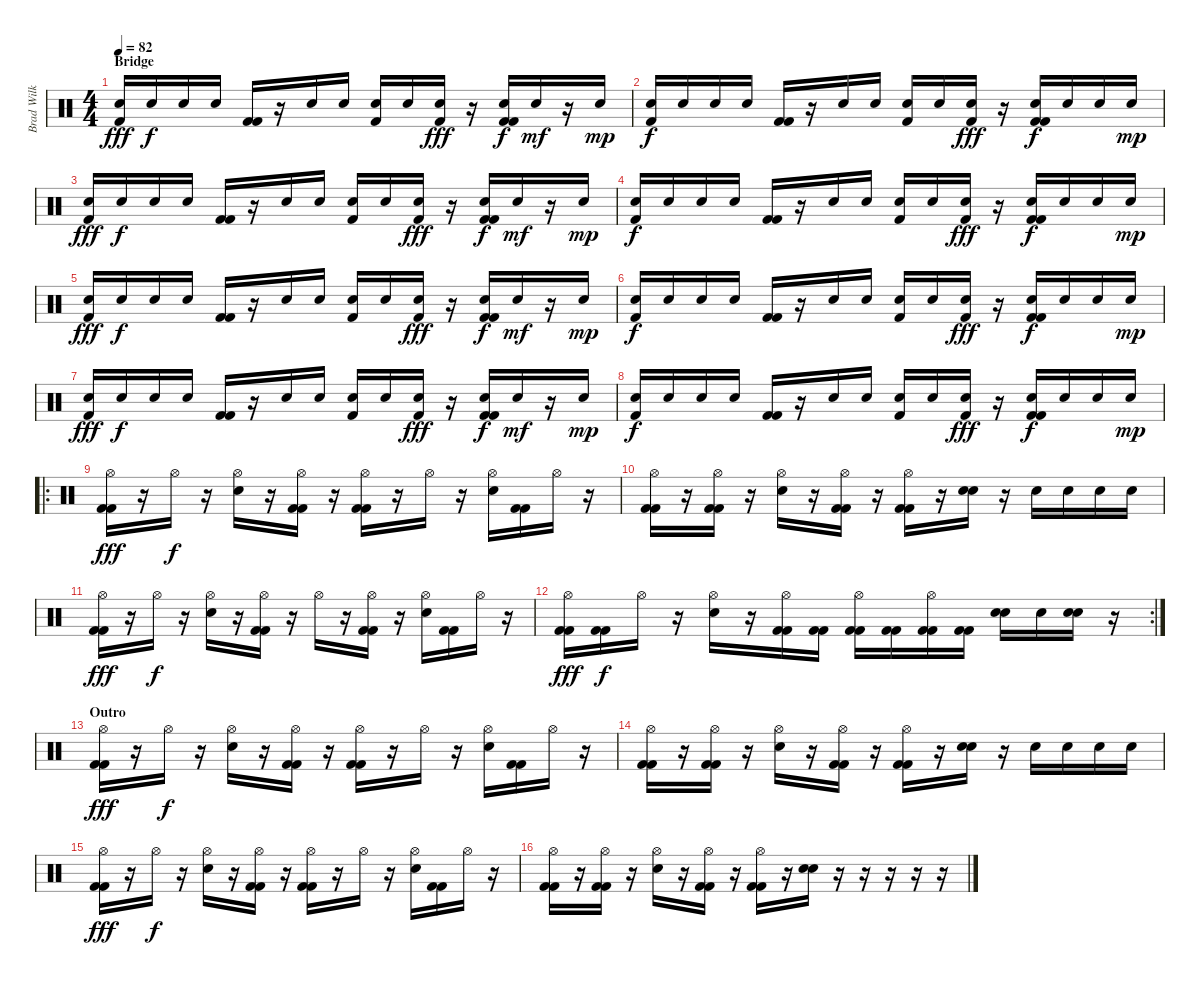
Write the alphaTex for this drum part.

\track ("Brad Wilk" "Brad Wilk") {instrument percussion}
\staff {score}
\articulation defaults
\ts (4 4)
\section ("" "Bridge")
\tempo 82
\clef neutral
\ks c
("Electric Snare (hit)" "Kick (hit) 2").16{dy fff} "Electric Snare (hit)".16{dy f} "Electric Snare (hit)".16 "Electric Snare (hit)".16 ("Kick (hit) 2" "Kick (hit) 2").16 r.16 "Electric Snare (hit)".16 "Electric Snare (hit)".16 ("Electric Snare (hit)" "Kick (hit) 2").16 "Electric Snare (hit)".16 ("Electric Snare (hit)" "Kick (hit) 2").16{dy fff} r.16 ("Electric Snare (hit)" "Kick (hit) 2" "Kick (hit) 2").16{dy f} "Snare (hit) 2".16{dy mf} r.16 "Electric Snare (hit)".16{dy mp} |
("Electric Snare (hit)" "Kick (hit) 2").16{dy f} "Electric Snare (hit)".16 "Electric Snare (hit)".16 "Electric Snare (hit)".16 ("Kick (hit) 2" "Kick (hit) 2").16 r.16 "Electric Snare (hit)".16 "Electric Snare (hit)".16 ("Electric Snare (hit)" "Kick (hit) 2").16 "Electric Snare (hit)".16 ("Electric Snare (hit)" "Kick (hit) 2").16{dy fff} r.16 ("Electric Snare (hit)" "Kick (hit) 2" "Kick (hit) 2").16{dy f} "Electric Snare (hit)".16 "Electric Snare (hit)".16 "Electric Snare (hit)".16{dy mp} |
("Electric Snare (hit)" "Kick (hit) 2").16{dy fff} "Electric Snare (hit)".16{dy f} "Electric Snare (hit)".16 "Electric Snare (hit)".16 ("Kick (hit) 2" "Kick (hit) 2").16 r.16 "Electric Snare (hit)".16 "Electric Snare (hit)".16 ("Electric Snare (hit)" "Kick (hit) 2").16 "Electric Snare (hit)".16 ("Electric Snare (hit)" "Kick (hit) 2").16{dy fff} r.16 ("Electric Snare (hit)" "Kick (hit) 2" "Kick (hit) 2").16{dy f} "Snare (hit) 2".16{dy mf} r.16 "Electric Snare (hit)".16{dy mp} |
("Electric Snare (hit)" "Kick (hit) 2").16{dy f} "Electric Snare (hit)".16 "Electric Snare (hit)".16 "Electric Snare (hit)".16 ("Kick (hit) 2" "Kick (hit) 2").16 r.16 "Electric Snare (hit)".16 "Electric Snare (hit)".16 ("Electric Snare (hit)" "Kick (hit) 2").16 "Electric Snare (hit)".16 ("Electric Snare (hit)" "Kick (hit) 2").16{dy fff} r.16 ("Electric Snare (hit)" "Kick (hit) 2" "Kick (hit) 2").16{dy f} "Electric Snare (hit)".16 "Electric Snare (hit)".16 "Electric Snare (hit)".16{dy mp} |
("Electric Snare (hit)" "Kick (hit) 2").16{dy fff} "Electric Snare (hit)".16{dy f} "Electric Snare (hit)".16 "Electric Snare (hit)".16 ("Kick (hit) 2" "Kick (hit) 2").16 r.16 "Electric Snare (hit)".16 "Electric Snare (hit)".16 ("Electric Snare (hit)" "Kick (hit) 2").16 "Electric Snare (hit)".16 ("Electric Snare (hit)" "Kick (hit) 2").16{dy fff} r.16 ("Electric Snare (hit)" "Kick (hit) 2" "Kick (hit) 2").16{dy f} "Snare (hit) 2".16{dy mf} r.16 "Electric Snare (hit)".16{dy mp} |
("Electric Snare (hit)" "Kick (hit) 2").16{dy f} "Electric Snare (hit)".16 "Electric Snare (hit)".16 "Electric Snare (hit)".16 ("Kick (hit) 2" "Kick (hit) 2").16 r.16 "Electric Snare (hit)".16 "Electric Snare (hit)".16 ("Electric Snare (hit)" "Kick (hit) 2").16 "Electric Snare (hit)".16 ("Electric Snare (hit)" "Kick (hit) 2").16{dy fff} r.16 ("Electric Snare (hit)" "Kick (hit) 2" "Kick (hit) 2").16{dy f} "Electric Snare (hit)".16 "Electric Snare (hit)".16 "Electric Snare (hit)".16{dy mp} |
("Electric Snare (hit)" "Kick (hit) 2").16{dy fff} "Electric Snare (hit)".16{dy f} "Electric Snare (hit)".16 "Electric Snare (hit)".16 ("Kick (hit) 2" "Kick (hit) 2").16 r.16 "Electric Snare (hit)".16 "Electric Snare (hit)".16 ("Electric Snare (hit)" "Kick (hit) 2").16 "Electric Snare (hit)".16 ("Electric Snare (hit)" "Kick (hit) 2").16{dy fff} r.16 ("Electric Snare (hit)" "Kick (hit) 2" "Kick (hit) 2").16{dy f} "Snare (hit) 2".16{dy mf} r.16 "Electric Snare (hit)".16{dy mp} |
("Electric Snare (hit)" "Kick (hit) 2").16{dy f} "Electric Snare (hit)".16 "Electric Snare (hit)".16 "Electric Snare (hit)".16 ("Kick (hit) 2" "Kick (hit) 2").16 r.16 "Electric Snare (hit)".16 "Electric Snare (hit)".16 ("Electric Snare (hit)" "Kick (hit) 2").16 "Electric Snare (hit)".16 ("Electric Snare (hit)" "Kick (hit) 2").16{dy fff} r.16 ("Electric Snare (hit)" "Kick (hit) 2" "Kick (hit) 2").16{dy f} "Electric Snare (hit)".16 "Electric Snare (hit)".16 "Electric Snare (hit)".16{dy mp} |
\ro
("Hi-Hat (open)" "Kick (hit) 2" "Kick (hit) 2").16{dy fff} r.16 "Hi-Hat (open)".16{dy f} r.16 ("Hi-Hat (open)" "Snare (hit) 2").16 r.16 ("Hi-Hat (open)" "Kick (hit) 2" "Kick (hit) 2").16 r.16 ("Hi-Hat (open)" "Kick (hit) 2" "Kick (hit) 2").16 r.16 "Hi-Hat (open)".16 r.16 ("Hi-Hat (open)" "Snare (hit) 2").16 ("Kick (hit) 2" "Kick (hit) 2").16 "Hi-Hat (open)".16 r.16 |
("Hi-Hat (open)" "Kick (hit) 2" "Kick (hit) 2").16 r.16 ("Hi-Hat (open)" "Kick (hit) 2" "Kick (hit) 2").16 r.16 ("Hi-Hat (open)" "Snare (hit) 2").16 r.16 ("Hi-Hat (open)" "Kick (hit) 2" "Kick (hit) 2").16 r.16 ("Hi-Hat (open)" "Kick (hit) 2" "Kick (hit) 2").16 r.16 ("Electric Snare (hit)" "Electric Snare (hit)").16{bd 240} r.16 "Electric Snare (hit)".16 "Electric Snare (hit)".16 "Electric Snare (hit)".16 "Electric Snare (hit)".16 |
("Hi-Hat (open)" "Kick (hit) 2" "Kick (hit) 2").16{dy fff} r.16 "Hi-Hat (open)".16{dy f} r.16 ("Hi-Hat (open)" "Snare (hit) 2").16 r.16 ("Hi-Hat (open)" "Kick (hit) 2" "Kick (hit) 2").16 r.16 "Hi-Hat (open)".16 r.16 ("Hi-Hat (open)" "Kick (hit) 2" "Kick (hit) 2").16 r.16 ("Hi-Hat (open)" "Snare (hit) 2").16 ("Kick (hit) 2" "Kick (hit) 2").16 "Hi-Hat (open)".16 r.16 |
\rc 2
("Hi-Hat (open)" "Kick (hit) 2" "Kick (hit) 2").16{dy fff} ("Kick (hit) 2" "Kick (hit) 2").16{dy f} "Hi-Hat (open)".16 r.16 ("Hi-Hat (open)" "Snare (hit) 2").16 r.16 ("Hi-Hat (open)" "Kick (hit) 2" "Kick (hit) 2").16 ("Kick (hit) 2" "Kick (hit) 2").16 ("Hi-Hat (open)" "Kick (hit) 2" "Kick (hit) 2").16 ("Kick (hit) 2" "Kick (hit) 2").16 ("Hi-Hat (open)" "Kick (hit) 2" "Kick (hit) 2").16 ("Kick (hit) 2" "Kick (hit) 2").16 ("Electric Snare (hit)" "Electric Snare (hit)").16{bd 240} "Electric Snare (hit)".16 ("Snare (hit) 2" "Snare (hit) 2").16 r.16 |
\section ("" "Outro")
("Hi-Hat (open)" "Kick (hit) 2" "Kick (hit) 2").16{dy fff} r.16 "Hi-Hat (open)".16{dy f} r.16 ("Hi-Hat (open)" "Snare (hit) 2").16 r.16 ("Hi-Hat (open)" "Kick (hit) 2" "Kick (hit) 2").16 r.16 ("Hi-Hat (open)" "Kick (hit) 2" "Kick (hit) 2").16 r.16 "Hi-Hat (open)".16 r.16 ("Hi-Hat (open)" "Snare (hit) 2").16 ("Kick (hit) 2" "Kick (hit) 2").16 "Hi-Hat (open)".16 r.16 |
("Hi-Hat (open)" "Kick (hit) 2" "Kick (hit) 2").16 r.16 ("Hi-Hat (open)" "Kick (hit) 2" "Kick (hit) 2").16 r.16 ("Hi-Hat (open)" "Snare (hit) 2").16 r.16 ("Hi-Hat (open)" "Kick (hit) 2" "Kick (hit) 2").16 r.16 ("Hi-Hat (open)" "Kick (hit) 2" "Kick (hit) 2").16 r.16 ("Electric Snare (hit)" "Electric Snare (hit)").16{bd 240} r.16 "Electric Snare (hit)".16 "Electric Snare (hit)".16 "Electric Snare (hit)".16 "Electric Snare (hit)".16 |
("Hi-Hat (open)" "Kick (hit) 2" "Kick (hit) 2").16{dy fff} r.16 "Hi-Hat (open)".16{dy f} r.16 ("Hi-Hat (open)" "Snare (hit) 2").16 r.16 ("Hi-Hat (open)" "Kick (hit) 2" "Kick (hit) 2").16 r.16 ("Hi-Hat (open)" "Kick (hit) 2" "Kick (hit) 2").16 r.16 "Hi-Hat (open)".16 r.16 ("Hi-Hat (open)" "Snare (hit) 2").16 ("Kick (hit) 2" "Kick (hit) 2").16 "Hi-Hat (open)".16 r.16 |
("Hi-Hat (open)" "Kick (hit) 2" "Kick (hit) 2").16 r.16 ("Hi-Hat (open)" "Kick (hit) 2" "Kick (hit) 2").16 r.16 ("Hi-Hat (open)" "Snare (hit) 2").16 r.16 ("Hi-Hat (open)" "Kick (hit) 2" "Kick (hit) 2").16 r.16 ("Hi-Hat (open)" "Kick (hit) 2" "Kick (hit) 2").16 r.16 ("Electric Snare (hit)" "Electric Snare (hit)").16{bd 240} r.16 r.16 r.16 r.16 r.16
